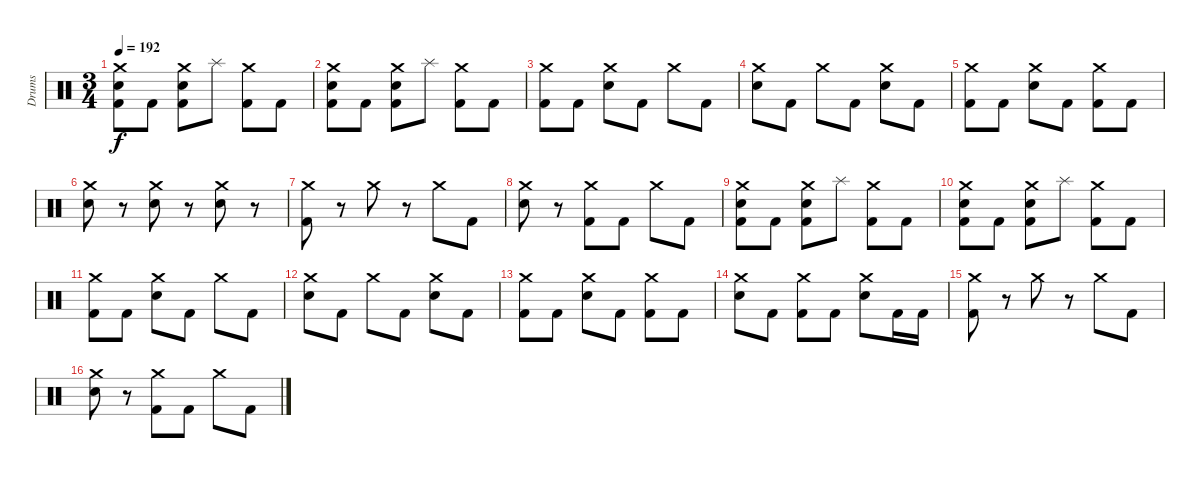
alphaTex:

\track ("Drums" "Drums") {instrument percussion}
\staff {score}
\articulation defaults
\ts (3 4)
\tempo 192
\clef neutral
\ks c
("Crash medium (hit)" "Electric Snare (hit)" "Kick (hit) 2").8{dy f} "Kick (hit) 2".8 ("Crash medium (hit)" "Electric Snare (hit)" "Kick (hit) 2").8 "Splash (hit)".8 ("Crash medium (hit)" "Kick (hit) 2").8 "Kick (hit) 2".8 |
("Crash medium (hit)" "Electric Snare (hit)" "Kick (hit) 2").8 "Kick (hit) 2".8 ("Crash medium (hit)" "Electric Snare (hit)" "Kick (hit) 2").8 "Splash (hit)".8 ("Crash medium (hit)" "Kick (hit) 2").8 "Kick (hit) 2".8 |
("Crash medium (hit)" "Kick (hit) 2").8 "Kick (hit) 2".8 ("Crash medium (hit)" "Electric Snare (hit)").8 "Kick (hit) 2".8 "Crash medium (hit)".8 "Kick (hit) 2".8 |
("Crash medium (hit)" "Electric Snare (hit)").8 "Kick (hit) 2".8 "Crash medium (hit)".8 "Kick (hit) 2".8 ("Crash medium (hit)" "Electric Snare (hit)").8 "Kick (hit) 2".8 |
("Crash medium (hit)" "Kick (hit) 2").8 "Kick (hit) 2".8 ("Crash medium (hit)" "Electric Snare (hit)").8 "Kick (hit) 2".8 ("Crash medium (hit)" "Kick (hit) 2").8 "Kick (hit) 2".8 |
("Crash medium (hit)" "Electric Snare (hit)").8 r.8 ("Crash medium (hit)" "Electric Snare (hit)").8 r.8 ("Crash medium (hit)" "Electric Snare (hit)").8 r.8 |
("Crash medium (hit)" "Kick (hit) 2").8 r.8 "Crash medium (hit)".8 r.8 "Crash medium (hit)".8 "Kick (hit) 2".8 |
("Crash medium (hit)" "Electric Snare (hit)").8 r.8 ("Crash medium (hit)" "Kick (hit) 2").8 "Kick (hit) 2".8 "Crash medium (hit)".8 "Kick (hit) 2".8 |
("Crash medium (hit)" "Electric Snare (hit)" "Kick (hit) 2").8 "Kick (hit) 2".8 ("Crash medium (hit)" "Electric Snare (hit)" "Kick (hit) 2").8 "Splash (hit)".8 ("Crash medium (hit)" "Kick (hit) 2").8 "Kick (hit) 2".8 |
("Crash medium (hit)" "Electric Snare (hit)" "Kick (hit) 2").8 "Kick (hit) 2".8 ("Crash medium (hit)" "Electric Snare (hit)" "Kick (hit) 2").8 "Splash (hit)".8 ("Crash medium (hit)" "Kick (hit) 2").8 "Kick (hit) 2".8 |
("Crash medium (hit)" "Kick (hit) 2").8 "Kick (hit) 2".8 ("Crash medium (hit)" "Electric Snare (hit)").8 "Kick (hit) 2".8 "Crash medium (hit)".8 "Kick (hit) 2".8 |
("Crash medium (hit)" "Electric Snare (hit)").8 "Kick (hit) 2".8 "Crash medium (hit)".8 "Kick (hit) 2".8 ("Crash medium (hit)" "Electric Snare (hit)").8 "Kick (hit) 2".8 |
("Crash medium (hit)" "Kick (hit) 2").8 "Kick (hit) 2".8 ("Crash medium (hit)" "Electric Snare (hit)").8 "Kick (hit) 2".8 ("Crash medium (hit)" "Kick (hit) 2").8 "Kick (hit) 2".8 |
("Crash medium (hit)" "Electric Snare (hit)").8 "Kick (hit) 2".8 ("Crash medium (hit)" "Kick (hit) 2").8 "Kick (hit) 2".8 ("Crash medium (hit)" "Electric Snare (hit)").8 "Kick (hit) 2".16 "Kick (hit) 2".16 |
("Crash medium (hit)" "Kick (hit) 2").8 r.8 "Crash medium (hit)".8 r.8 "Crash medium (hit)".8 "Kick (hit) 2".8 |
("Crash medium (hit)" "Electric Snare (hit)").8 r.8 ("Crash medium (hit)" "Kick (hit) 2").8 "Kick (hit) 2".8 "Crash medium (hit)".8 "Kick (hit) 2".8
